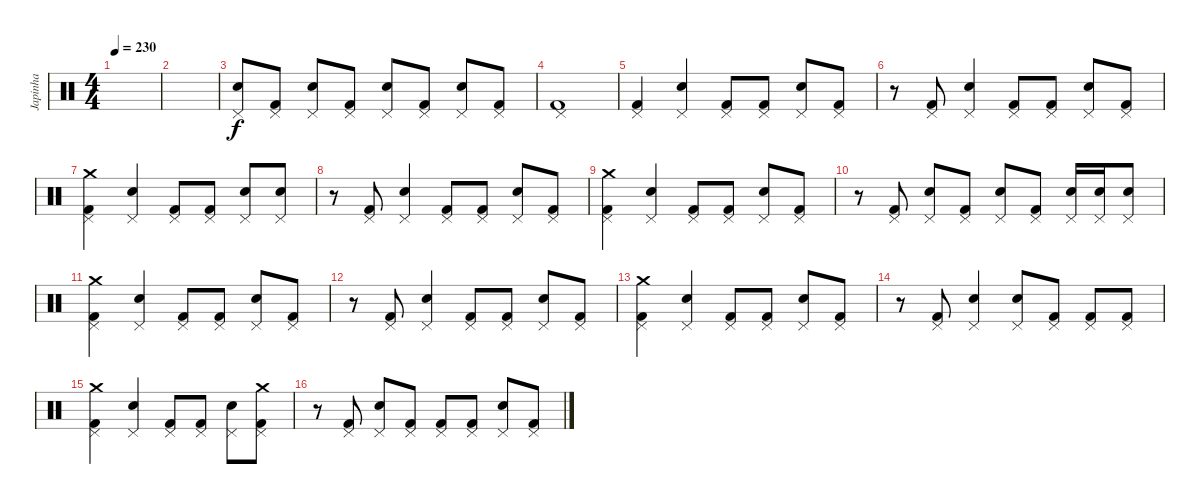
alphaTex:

\track ("Japinha" "Japinha") {instrument percussion}
\staff {score}
\articulation defaults
\ts (4 4)
\tempo 230
\clef neutral
\ks c
|
|
("Pedal Hi-Hat (hit)" "Snare (hit) 2").8 ("Pedal Hi-Hat (hit)" "Kick (hit) 2").8 ("Pedal Hi-Hat (hit)" "Snare (hit) 2").8 ("Pedal Hi-Hat (hit)" "Kick (hit) 2").8 ("Pedal Hi-Hat (hit)" "Snare (hit) 2").8 ("Pedal Hi-Hat (hit)" "Kick (hit) 2").8 ("Pedal Hi-Hat (hit)" "Snare (hit) 2").8 ("Pedal Hi-Hat (hit)" "Kick (hit) 2").8 |
("Pedal Hi-Hat (hit)" "Kick (hit) 2").1 |
("Pedal Hi-Hat (hit)" "Kick (hit) 2").4 ("Pedal Hi-Hat (hit)" "Snare (hit) 2").4 ("Pedal Hi-Hat (hit)" "Kick (hit) 2").8 ("Pedal Hi-Hat (hit)" "Kick (hit) 2").8 ("Pedal Hi-Hat (hit)" "Snare (hit) 2").8 ("Pedal Hi-Hat (hit)" "Kick (hit) 2").8 |
r.8 ("Pedal Hi-Hat (hit)" "Kick (hit) 2").8 ("Pedal Hi-Hat (hit)" "Snare (hit) 2").4 ("Pedal Hi-Hat (hit)" "Kick (hit) 2").8 ("Pedal Hi-Hat (hit)" "Kick (hit) 2").8 ("Pedal Hi-Hat (hit)" "Snare (hit) 2").8 ("Pedal Hi-Hat (hit)" "Kick (hit) 2").8 |
("Crash medium (hit)" "Pedal Hi-Hat (hit)" "Kick (hit) 2").4 ("Pedal Hi-Hat (hit)" "Snare (hit) 2").4 ("Pedal Hi-Hat (hit)" "Kick (hit) 2").8 ("Pedal Hi-Hat (hit)" "Kick (hit) 2").8 ("Pedal Hi-Hat (hit)" "Snare (hit) 2").8 ("Pedal Hi-Hat (hit)" "Snare (hit) 2").8 |
r.8 ("Pedal Hi-Hat (hit)" "Kick (hit) 2").8 ("Pedal Hi-Hat (hit)" "Snare (hit) 2").4 ("Pedal Hi-Hat (hit)" "Kick (hit) 2").8 ("Pedal Hi-Hat (hit)" "Kick (hit) 2").8 ("Pedal Hi-Hat (hit)" "Snare (hit) 2").8 ("Pedal Hi-Hat (hit)" "Kick (hit) 2").8 |
("Crash medium (hit)" "Pedal Hi-Hat (hit)" "Kick (hit) 2").4 ("Pedal Hi-Hat (hit)" "Snare (hit) 2").4 ("Pedal Hi-Hat (hit)" "Kick (hit) 2").8 ("Pedal Hi-Hat (hit)" "Kick (hit) 2").8 ("Pedal Hi-Hat (hit)" "Snare (hit) 2").8 ("Pedal Hi-Hat (hit)" "Kick (hit) 2").8 |
r.8 ("Pedal Hi-Hat (hit)" "Kick (hit) 2").8 ("Pedal Hi-Hat (hit)" "Snare (hit) 2").8 ("Pedal Hi-Hat (hit)" "Kick (hit) 2").8 ("Pedal Hi-Hat (hit)" "Electric Snare (hit)").8 ("Pedal Hi-Hat (hit)" "Kick (hit) 2").8 ("Pedal Hi-Hat (hit)" "Electric Snare (hit)").16 ("Pedal Hi-Hat (hit)" "Electric Snare (hit)").16 ("Pedal Hi-Hat (hit)" "Electric Snare (hit)").8 |
("Crash medium (hit)" "Pedal Hi-Hat (hit)" "Kick (hit) 2").4 ("Pedal Hi-Hat (hit)" "Snare (hit) 2").4 ("Pedal Hi-Hat (hit)" "Kick (hit) 2").8 ("Pedal Hi-Hat (hit)" "Kick (hit) 2").8 ("Pedal Hi-Hat (hit)" "Snare (hit) 2").8 ("Pedal Hi-Hat (hit)" "Kick (hit) 2").8 |
r.8 ("Pedal Hi-Hat (hit)" "Kick (hit) 2").8 ("Pedal Hi-Hat (hit)" "Snare (hit) 2").4 ("Pedal Hi-Hat (hit)" "Kick (hit) 2").8 ("Pedal Hi-Hat (hit)" "Kick (hit) 2").8 ("Pedal Hi-Hat (hit)" "Snare (hit) 2").8 ("Pedal Hi-Hat (hit)" "Kick (hit) 2").8 |
("Crash medium (hit)" "Pedal Hi-Hat (hit)" "Kick (hit) 2").4 ("Pedal Hi-Hat (hit)" "Snare (hit) 2").4 ("Pedal Hi-Hat (hit)" "Kick (hit) 2").8 ("Pedal Hi-Hat (hit)" "Kick (hit) 2").8 ("Pedal Hi-Hat (hit)" "Snare (hit) 2").8 ("Pedal Hi-Hat (hit)" "Kick (hit) 2").8 |
r.8 ("Pedal Hi-Hat (hit)" "Kick (hit) 2").8 ("Pedal Hi-Hat (hit)" "Snare (hit) 2").4 ("Pedal Hi-Hat (hit)" "Snare (hit) 2").8 ("Pedal Hi-Hat (hit)" "Kick (hit) 2").8 ("Pedal Hi-Hat (hit)" "Kick (hit) 2").8 ("Pedal Hi-Hat (hit)" "Kick (hit) 2").8 |
("Crash medium (hit)" "Pedal Hi-Hat (hit)" "Kick (hit) 2").4 ("Pedal Hi-Hat (hit)" "Snare (hit) 2").4 ("Pedal Hi-Hat (hit)" "Kick (hit) 2").8 ("Pedal Hi-Hat (hit)" "Kick (hit) 2").8 ("Pedal Hi-Hat (hit)" "Snare (hit) 2").8 ("Crash medium (hit)" "Pedal Hi-Hat (hit)" "Kick (hit) 2").8 |
r.8 ("Pedal Hi-Hat (hit)" "Kick (hit) 2").8 ("Pedal Hi-Hat (hit)" "Snare (hit) 2").8 ("Pedal Hi-Hat (hit)" "Kick (hit) 2").8 ("Pedal Hi-Hat (hit)" "Kick (hit) 2").8 ("Pedal Hi-Hat (hit)" "Kick (hit) 2").8 ("Pedal Hi-Hat (hit)" "Snare (hit) 2").8 ("Pedal Hi-Hat (hit)" "Kick (hit) 2").8
